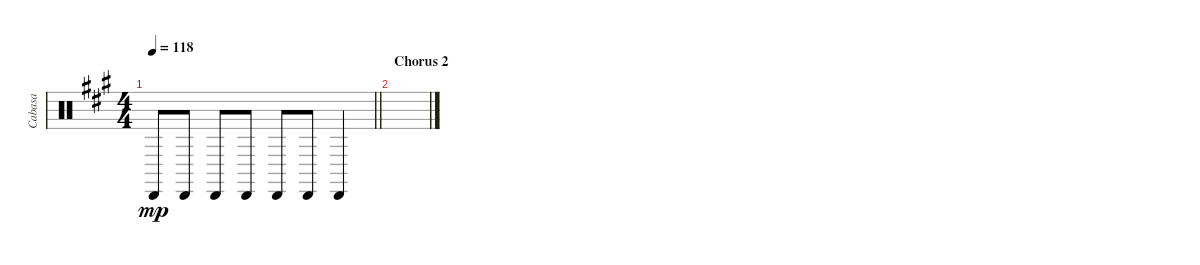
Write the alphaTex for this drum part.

\track ("Cabasa" "Cabasa") {instrument percussion}
\staff {score}
\articulation defaults
\ts (4 4)
\tempo 118
\clef neutral
\barLineRight lightlight
\ks a "Cabasa (hit)".8{dy mp} "Cabasa (hit)".8 "Cabasa (hit)".8 "Cabasa (hit)".8 "Cabasa (hit)".8 "Cabasa (hit)".8 "Cabasa (hit)".4
|
\section ("" "Chorus 2")
